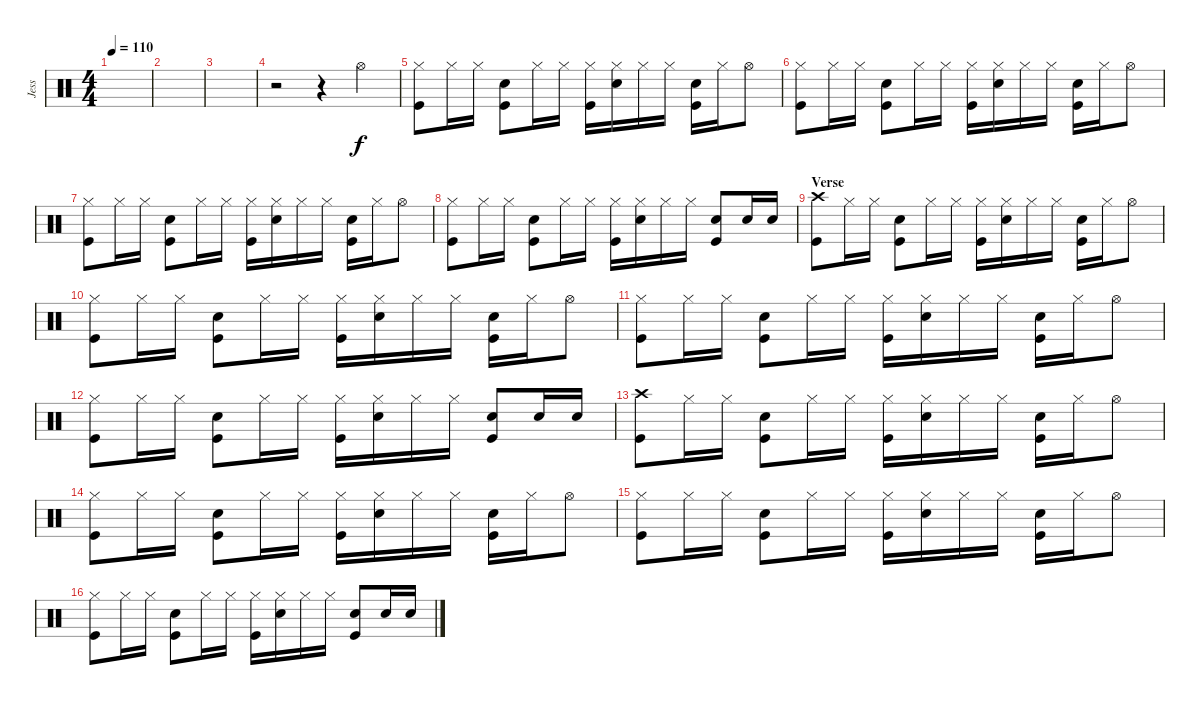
\track ("Jess" "Jess") {instrument percussion}
\staff {score}
\articulation defaults
\ts (4 4)
\tempo 110
\clef neutral
\ks c
|
|
|
r.2 r.4 "Hi-Hat (open)".4 |
("Hi-Hat (closed)" "Kick (hit)").8 "Hi-Hat (closed)".16 "Hi-Hat (closed)".16 ("Electric Snare (hit)" "Kick (hit)").8 "Hi-Hat (closed)".16 "Hi-Hat (closed)".16 ("Hi-Hat (closed)" "Kick (hit)").16 ("Hi-Hat (closed)" "Electric Snare (hit)").16 "Hi-Hat (closed)".16 "Hi-Hat (closed)".16 ("Electric Snare (hit)" "Kick (hit)").16 "Hi-Hat (closed)".16 "Hi-Hat (open)".8 |
("Hi-Hat (closed)" "Kick (hit)").8 "Hi-Hat (closed)".16 "Hi-Hat (closed)".16 ("Electric Snare (hit)" "Kick (hit)").8 "Hi-Hat (closed)".16 "Hi-Hat (closed)".16 ("Hi-Hat (closed)" "Kick (hit)").16 ("Hi-Hat (closed)" "Electric Snare (hit)").16 "Hi-Hat (closed)".16 "Hi-Hat (closed)".16 ("Electric Snare (hit)" "Kick (hit)").16 "Hi-Hat (closed)".16 "Hi-Hat (open)".8 |
("Hi-Hat (closed)" "Kick (hit)").8 "Hi-Hat (closed)".16 "Hi-Hat (closed)".16 ("Electric Snare (hit)" "Kick (hit)").8 "Hi-Hat (closed)".16 "Hi-Hat (closed)".16 ("Hi-Hat (closed)" "Kick (hit)").16 ("Hi-Hat (closed)" "Electric Snare (hit)").16 "Hi-Hat (closed)".16 "Hi-Hat (closed)".16 ("Electric Snare (hit)" "Kick (hit)").16 "Hi-Hat (closed)".16 "Hi-Hat (open)".8 |
("Hi-Hat (closed)" "Kick (hit)").8 "Hi-Hat (closed)".16 "Hi-Hat (closed)".16 ("Electric Snare (hit)" "Kick (hit)").8 "Hi-Hat (closed)".16 "Hi-Hat (closed)".16 ("Hi-Hat (closed)" "Kick (hit)").16 ("Hi-Hat (closed)" "Electric Snare (hit)").16 "Hi-Hat (closed)".16 "Hi-Hat (closed)".16 ("Electric Snare (hit)" "Kick (hit)").8 "Electric Snare (hit)".16 "Electric Snare (hit)".16 |
\section ("" "Verse")
("Crash high (hit)" "Kick (hit)").8 "Hi-Hat (closed)".16 "Hi-Hat (closed)".16 ("Electric Snare (hit)" "Kick (hit)").8 "Hi-Hat (closed)".16 "Hi-Hat (closed)".16 ("Hi-Hat (closed)" "Kick (hit)").16 ("Hi-Hat (closed)" "Electric Snare (hit)").16 "Hi-Hat (closed)".16 "Hi-Hat (closed)".16 ("Electric Snare (hit)" "Kick (hit)").16 "Hi-Hat (closed)".16 "Hi-Hat (open)".8 |
("Hi-Hat (closed)" "Kick (hit)").8 "Hi-Hat (closed)".16 "Hi-Hat (closed)".16 ("Electric Snare (hit)" "Kick (hit)").8 "Hi-Hat (closed)".16 "Hi-Hat (closed)".16 ("Hi-Hat (closed)" "Kick (hit)").16 ("Hi-Hat (closed)" "Electric Snare (hit)").16 "Hi-Hat (closed)".16 "Hi-Hat (closed)".16 ("Electric Snare (hit)" "Kick (hit)").16 "Hi-Hat (closed)".16 "Hi-Hat (open)".8 |
("Hi-Hat (closed)" "Kick (hit)").8 "Hi-Hat (closed)".16 "Hi-Hat (closed)".16 ("Electric Snare (hit)" "Kick (hit)").8 "Hi-Hat (closed)".16 "Hi-Hat (closed)".16 ("Hi-Hat (closed)" "Kick (hit)").16 ("Hi-Hat (closed)" "Electric Snare (hit)").16 "Hi-Hat (closed)".16 "Hi-Hat (closed)".16 ("Electric Snare (hit)" "Kick (hit)").16 "Hi-Hat (closed)".16 "Hi-Hat (open)".8 |
("Hi-Hat (closed)" "Kick (hit)").8 "Hi-Hat (closed)".16 "Hi-Hat (closed)".16 ("Electric Snare (hit)" "Kick (hit)").8 "Hi-Hat (closed)".16 "Hi-Hat (closed)".16 ("Hi-Hat (closed)" "Kick (hit)").16 ("Hi-Hat (closed)" "Electric Snare (hit)").16 "Hi-Hat (closed)".16 "Hi-Hat (closed)".16 ("Electric Snare (hit)" "Kick (hit)").8 "Electric Snare (hit)".16 "Electric Snare (hit)".16 |
("Crash high (hit)" "Kick (hit)").8 "Hi-Hat (closed)".16 "Hi-Hat (closed)".16 ("Electric Snare (hit)" "Kick (hit)").8 "Hi-Hat (closed)".16 "Hi-Hat (closed)".16 ("Hi-Hat (closed)" "Kick (hit)").16 ("Hi-Hat (closed)" "Electric Snare (hit)").16 "Hi-Hat (closed)".16 "Hi-Hat (closed)".16 ("Electric Snare (hit)" "Kick (hit)").16 "Hi-Hat (closed)".16 "Hi-Hat (open)".8 |
("Hi-Hat (closed)" "Kick (hit)").8 "Hi-Hat (closed)".16 "Hi-Hat (closed)".16 ("Electric Snare (hit)" "Kick (hit)").8 "Hi-Hat (closed)".16 "Hi-Hat (closed)".16 ("Hi-Hat (closed)" "Kick (hit)").16 ("Hi-Hat (closed)" "Electric Snare (hit)").16 "Hi-Hat (closed)".16 "Hi-Hat (closed)".16 ("Electric Snare (hit)" "Kick (hit)").16 "Hi-Hat (closed)".16 "Hi-Hat (open)".8 |
("Hi-Hat (closed)" "Kick (hit)").8 "Hi-Hat (closed)".16 "Hi-Hat (closed)".16 ("Electric Snare (hit)" "Kick (hit)").8 "Hi-Hat (closed)".16 "Hi-Hat (closed)".16 ("Hi-Hat (closed)" "Kick (hit)").16 ("Hi-Hat (closed)" "Electric Snare (hit)").16 "Hi-Hat (closed)".16 "Hi-Hat (closed)".16 ("Electric Snare (hit)" "Kick (hit)").16 "Hi-Hat (closed)".16 "Hi-Hat (open)".8 |
("Hi-Hat (closed)" "Kick (hit)").8 "Hi-Hat (closed)".16 "Hi-Hat (closed)".16 ("Electric Snare (hit)" "Kick (hit)").8 "Hi-Hat (closed)".16 "Hi-Hat (closed)".16 ("Hi-Hat (closed)" "Kick (hit)").16 ("Hi-Hat (closed)" "Electric Snare (hit)").16 "Hi-Hat (closed)".16 "Hi-Hat (closed)".16 ("Electric Snare (hit)" "Kick (hit)").8 "Electric Snare (hit)".16 "Electric Snare (hit)".16
